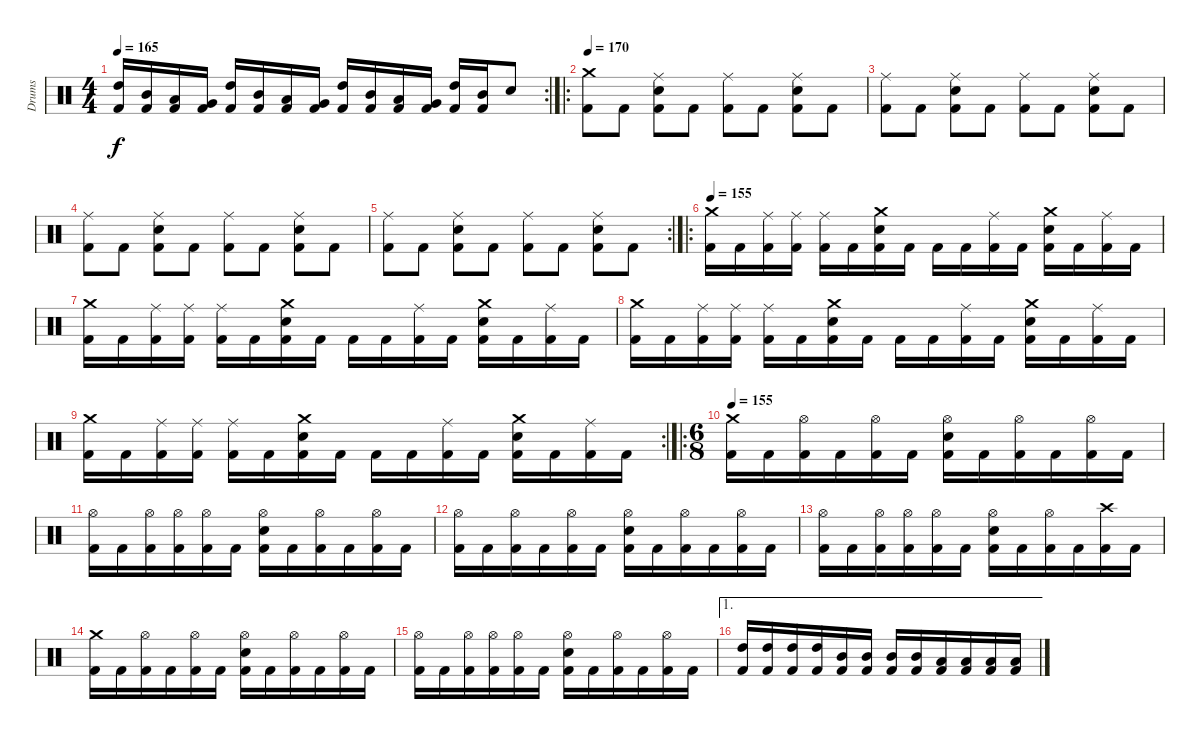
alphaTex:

\track ("Drums" "Drums") {instrument percussion}
\staff {score}
\articulation defaults
\rc 2
\ts (4 4)
\tempo 165
\clef neutral
\ks c
("Kick (hit) 2" "High Tom (hit)").16{dy f} ("Kick (hit) 2" "Mid Tom (hit)").16 ("Kick (hit) 2" "Low Tom (hit)").16 ("Kick (hit) 2" "Very Low Tom (hit)").16 ("Kick (hit) 2" "High Tom (hit)").16 ("Kick (hit) 2" "Mid Tom (hit)").16 ("Kick (hit) 2" "Low Tom (hit)").16 ("Kick (hit) 2" "Very Low Tom (hit)").16 ("Kick (hit) 2" "High Tom (hit)").16 ("Kick (hit) 2" "Mid Tom (hit)").16 ("Kick (hit) 2" "Low Tom (hit)").16 ("Kick (hit) 2" "Very Low Tom (hit)").16 ("Kick (hit) 2" "High Tom (hit)").16 ("Kick (hit) 2" "Mid Tom (hit)").16 "Electric Snare (hit)".8 |
\ro
\tempo 170
("Kick (hit) 2" "Crash medium (hit)").8 "Kick (hit) 2".8 ("Kick (hit) 2" "Electric Snare (hit)" "Ride (middle)").8 "Kick (hit) 2".8 ("Kick (hit) 2" "Ride (middle)").8 "Kick (hit) 2".8 ("Kick (hit) 2" "Electric Snare (hit)" "Ride (middle)").8 "Kick (hit) 2".8 |
("Kick (hit) 2" "Ride (middle)").8 "Kick (hit) 2".8 ("Kick (hit) 2" "Electric Snare (hit)" "Ride (middle)").8 "Kick (hit) 2".8 ("Kick (hit) 2" "Ride (middle)").8 "Kick (hit) 2".8 ("Kick (hit) 2" "Electric Snare (hit)" "Ride (middle)").8 "Kick (hit) 2".8 |
("Kick (hit) 2" "Ride (middle)").8 "Kick (hit) 2".8 ("Kick (hit) 2" "Electric Snare (hit)" "Ride (middle)").8 "Kick (hit) 2".8 ("Kick (hit) 2" "Ride (middle)").8 "Kick (hit) 2".8 ("Kick (hit) 2" "Electric Snare (hit)" "Ride (middle)").8 "Kick (hit) 2".8 |
\rc 2
("Kick (hit) 2" "Ride (middle)").8 "Kick (hit) 2".8 ("Kick (hit) 2" "Electric Snare (hit)" "Ride (middle)").8 "Kick (hit) 2".8 ("Kick (hit) 2" "Ride (middle)").8 "Kick (hit) 2".8 ("Kick (hit) 2" "Electric Snare (hit)" "Ride (middle)").8 "Kick (hit) 2".8 |
\ro
\tempo 155
("Kick (hit) 2" "Crash medium (hit)").16 "Kick (hit) 2".16 ("Kick (hit) 2" "Ride (middle)").16 ("Kick (hit) 2" "Ride (middle)").16 ("Kick (hit) 2" "Ride (middle)").16 "Kick (hit) 2".16 ("Kick (hit) 2" "Electric Snare (hit)" "Crash medium (hit)").16 "Kick (hit) 2".16 "Kick (hit) 2".16 "Kick (hit) 2".16 ("Kick (hit) 2" "Ride (middle)").16 "Kick (hit) 2".16 ("Kick (hit) 2" "Electric Snare (hit)" "Crash medium (hit)").16 "Kick (hit) 2".16 ("Kick (hit) 2" "Ride (middle)").16 "Kick (hit) 2".16 |
("Kick (hit) 2" "Crash medium (hit)").16 "Kick (hit) 2".16 ("Kick (hit) 2" "Ride (middle)").16 ("Kick (hit) 2" "Ride (middle)").16 ("Kick (hit) 2" "Ride (middle)").16 "Kick (hit) 2".16 ("Kick (hit) 2" "Electric Snare (hit)" "Crash medium (hit)").16 "Kick (hit) 2".16 "Kick (hit) 2".16 "Kick (hit) 2".16 ("Kick (hit) 2" "Ride (middle)").16 "Kick (hit) 2".16 ("Kick (hit) 2" "Electric Snare (hit)" "Crash medium (hit)").16 "Kick (hit) 2".16 ("Kick (hit) 2" "Ride (middle)").16 "Kick (hit) 2".16 |
("Kick (hit) 2" "Crash medium (hit)").16 "Kick (hit) 2".16 ("Kick (hit) 2" "Ride (middle)").16 ("Kick (hit) 2" "Ride (middle)").16 ("Kick (hit) 2" "Ride (middle)").16 "Kick (hit) 2".16 ("Kick (hit) 2" "Electric Snare (hit)" "Crash medium (hit)").16 "Kick (hit) 2".16 "Kick (hit) 2".16 "Kick (hit) 2".16 ("Kick (hit) 2" "Ride (middle)").16 "Kick (hit) 2".16 ("Kick (hit) 2" "Electric Snare (hit)" "Crash medium (hit)").16 "Kick (hit) 2".16 ("Kick (hit) 2" "Ride (middle)").16 "Kick (hit) 2".16 |
\rc 2
("Kick (hit) 2" "Crash medium (hit)").16 "Kick (hit) 2".16 ("Kick (hit) 2" "Ride (middle)").16 ("Kick (hit) 2" "Ride (middle)").16 ("Kick (hit) 2" "Ride (middle)").16 "Kick (hit) 2".16 ("Kick (hit) 2" "Electric Snare (hit)" "Crash medium (hit)").16 "Kick (hit) 2".16 "Kick (hit) 2".16 "Kick (hit) 2".16 ("Kick (hit) 2" "Ride (middle)").16 "Kick (hit) 2".16 ("Kick (hit) 2" "Electric Snare (hit)" "Crash medium (hit)").16 "Kick (hit) 2".16 ("Kick (hit) 2" "Ride (middle)").16 "Kick (hit) 2".16 |
\ro
\ts (6 8)
\tempo 155
("Kick (hit) 2" "Crash medium (hit)").16 "Kick (hit) 2".16 ("Kick (hit) 2" "Hi-Hat (open)").16 "Kick (hit) 2".16 ("Kick (hit) 2" "Hi-Hat (open)").16 "Kick (hit) 2".16 ("Kick (hit) 2" "Electric Snare (hit)" "Hi-Hat (open)").16 "Kick (hit) 2".16 ("Kick (hit) 2" "Hi-Hat (open)").16 "Kick (hit) 2".16 ("Kick (hit) 2" "Hi-Hat (open)").16 "Kick (hit) 2".16 |
("Kick (hit) 2" "Hi-Hat (open)").16 "Kick (hit) 2".16 ("Kick (hit) 2" "Hi-Hat (open)").16 ("Kick (hit) 2" "Hi-Hat (open)").16 ("Kick (hit) 2" "Hi-Hat (open)").16 "Kick (hit) 2".16 ("Kick (hit) 2" "Electric Snare (hit)" "Hi-Hat (open)").16 "Kick (hit) 2".16 ("Kick (hit) 2" "Hi-Hat (open)").16 "Kick (hit) 2".16 ("Kick (hit) 2" "Hi-Hat (open)").16 "Kick (hit) 2".16 |
("Kick (hit) 2" "Hi-Hat (open)").16 "Kick (hit) 2".16 ("Kick (hit) 2" "Hi-Hat (open)").16 "Kick (hit) 2".16 ("Kick (hit) 2" "Hi-Hat (open)").16 "Kick (hit) 2".16 ("Kick (hit) 2" "Electric Snare (hit)" "Hi-Hat (open)").16 "Kick (hit) 2".16 ("Kick (hit) 2" "Hi-Hat (open)").16 "Kick (hit) 2".16 ("Kick (hit) 2" "Hi-Hat (open)").16 "Kick (hit) 2".16 |
("Kick (hit) 2" "Hi-Hat (open)").16 "Kick (hit) 2".16 ("Kick (hit) 2" "Hi-Hat (open)").16 ("Kick (hit) 2" "Hi-Hat (open)").16 ("Kick (hit) 2" "Hi-Hat (open)").16 "Kick (hit) 2".16 ("Kick (hit) 2" "Electric Snare (hit)" "Hi-Hat (open)").16 "Kick (hit) 2".16 ("Kick (hit) 2" "Hi-Hat (open)").16 "Kick (hit) 2".16 ("Kick (hit) 2" "Crash high (hit)").16 "Kick (hit) 2".16 |
("Kick (hit) 2" "Crash medium (hit)").16 "Kick (hit) 2".16 ("Kick (hit) 2" "Hi-Hat (open)").16 "Kick (hit) 2".16 ("Kick (hit) 2" "Hi-Hat (open)").16 "Kick (hit) 2".16 ("Kick (hit) 2" "Electric Snare (hit)" "Hi-Hat (open)").16 "Kick (hit) 2".16 ("Kick (hit) 2" "Hi-Hat (open)").16 "Kick (hit) 2".16 ("Kick (hit) 2" "Hi-Hat (open)").16 "Kick (hit) 2".16 |
("Kick (hit) 2" "Hi-Hat (open)").16 "Kick (hit) 2".16 ("Kick (hit) 2" "Hi-Hat (open)").16 ("Kick (hit) 2" "Hi-Hat (open)").16 ("Kick (hit) 2" "Hi-Hat (open)").16 "Kick (hit) 2".16 ("Kick (hit) 2" "Electric Snare (hit)" "Hi-Hat (open)").16 "Kick (hit) 2".16 ("Kick (hit) 2" "Hi-Hat (open)").16 "Kick (hit) 2".16 ("Kick (hit) 2" "Hi-Hat (open)").16 "Kick (hit) 2".16 |
\ae 1
("Kick (hit) 2" "High Tom (hit)").16 ("Kick (hit) 2" "High Tom (hit)").16 ("Kick (hit) 2" "High Tom (hit)").16 ("Kick (hit) 2" "High Tom (hit)").16 ("Kick (hit) 2" "Mid Tom (hit)").16 ("Kick (hit) 2" "Mid Tom (hit)").16 ("Kick (hit) 2" "Mid Tom (hit)").16 ("Kick (hit) 2" "Mid Tom (hit)").16 ("Kick (hit) 2" "Low Tom (hit)").16 ("Kick (hit) 2" "Low Tom (hit)").16 ("Kick (hit) 2" "Low Tom (hit)").16 ("Kick (hit) 2" "Low Tom (hit)").16
